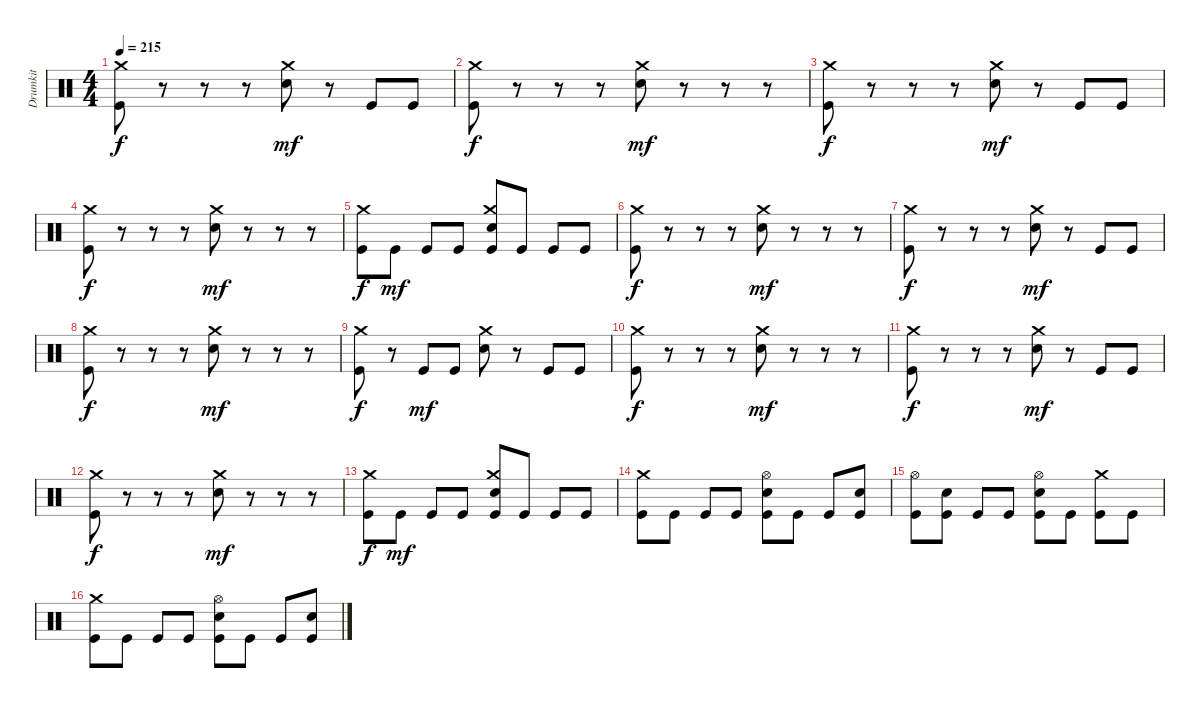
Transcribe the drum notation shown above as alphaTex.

\track ("Drumkit" "Drumkit") {instrument percussion}
\staff {score}
\articulation defaults
\ts (4 4)
\tempo 215
\clef neutral
\ks c
("Kick (hit)" "Crash medium (hit)").8{dy f} r.8 r.8 r.8 ("Snare (hit) 2" "Crash medium (hit)").8{dy mf} r.8 "Kick (hit)".8 "Kick (hit)".8 |
("Kick (hit)" "Crash medium (hit)").8{dy f} r.8 r.8 r.8 ("Snare (hit) 2" "Crash medium (hit)").8{dy mf} r.8 r.8 r.8 |
("Kick (hit)" "Crash medium (hit)").8{dy f} r.8 r.8 r.8 ("Snare (hit) 2" "Crash medium (hit)").8{dy mf} r.8 "Kick (hit)".8 "Kick (hit)".8 |
("Kick (hit)" "Crash medium (hit)").8{dy f} r.8 r.8 r.8 ("Snare (hit) 2" "Crash medium (hit)").8{dy mf} r.8 r.8 r.8 |
("Kick (hit)" "Crash medium (hit)").8{dy f} "Kick (hit)".8{dy mf} "Kick (hit)".8 "Kick (hit)".8 ("Snare (hit) 2" "Crash medium (hit)" "Kick (hit)").8 "Kick (hit)".8 "Kick (hit)".8 "Kick (hit)".8 |
("Kick (hit)" "Crash medium (hit)").8{dy f} r.8 r.8 r.8 ("Snare (hit) 2" "Crash medium (hit)").8{dy mf} r.8 r.8 r.8 |
("Kick (hit)" "Crash medium (hit)").8{dy f} r.8 r.8 r.8 ("Snare (hit) 2" "Crash medium (hit)").8{dy mf} r.8 "Kick (hit)".8 "Kick (hit)".8 |
("Kick (hit)" "Crash medium (hit)").8{dy f} r.8 r.8 r.8 ("Snare (hit) 2" "Crash medium (hit)").8{dy mf} r.8 r.8 r.8 |
("Kick (hit)" "Crash medium (hit)").8{dy f} r.8 "Kick (hit)".8{dy mf} "Kick (hit)".8 ("Snare (hit) 2" "Crash medium (hit)").8 r.8 "Kick (hit)".8 "Kick (hit)".8 |
("Kick (hit)" "Crash medium (hit)").8{dy f} r.8 r.8 r.8 ("Snare (hit) 2" "Crash medium (hit)").8{dy mf} r.8 r.8 r.8 |
("Kick (hit)" "Crash medium (hit)").8{dy f} r.8 r.8 r.8 ("Snare (hit) 2" "Crash medium (hit)").8{dy mf} r.8 "Kick (hit)".8 "Kick (hit)".8 |
("Kick (hit)" "Crash medium (hit)").8{dy f} r.8 r.8 r.8 ("Snare (hit) 2" "Crash medium (hit)").8{dy mf} r.8 r.8 r.8 |
("Kick (hit)" "Crash medium (hit)").8{dy f} "Kick (hit)".8{dy mf} "Kick (hit)".8 "Kick (hit)".8 ("Snare (hit) 2" "Crash medium (hit)" "Kick (hit)").8 "Kick (hit)".8 "Kick (hit)".8 "Kick (hit)".8 |
("Kick (hit)" "Crash medium (hit)").8 "Kick (hit)".8 "Kick (hit)".8 "Kick (hit)".8 ("Kick (hit)" "Snare (hit) 2" "Hi-Hat (open)").8 "Kick (hit)".8 "Kick (hit)".8 ("Kick (hit)" "Snare (hit) 2").8 |
("Kick (hit)" "Hi-Hat (open)").8 ("Kick (hit)" "Snare (hit) 2").8 "Kick (hit)".8 "Kick (hit)".8 ("Kick (hit)" "Snare (hit) 2" "Hi-Hat (open)").8 "Kick (hit)".8 ("Kick (hit)" "Crash medium (hit)").8 "Kick (hit)".8 |
("Kick (hit)" "Crash medium (hit)").8 "Kick (hit)".8 "Kick (hit)".8 "Kick (hit)".8 ("Kick (hit)" "Snare (hit) 2" "Hi-Hat (open)").8 "Kick (hit)".8 "Kick (hit)".8 ("Kick (hit)" "Snare (hit) 2").8
